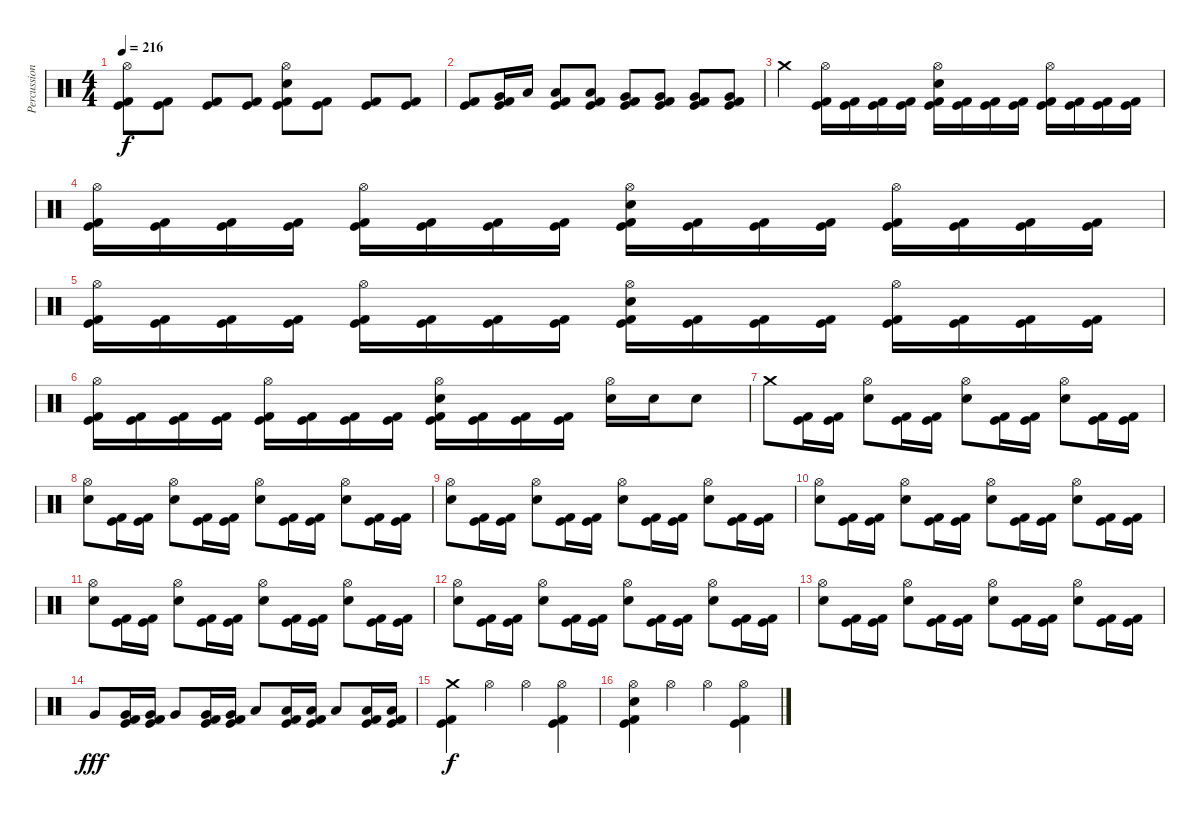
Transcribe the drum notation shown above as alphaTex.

\track ("Percussions" "Percussion") {instrument percussion}
\staff {score}
\articulation defaults
\ts (4 4)
\tempo 216
\clef neutral
\ks c
("Hi-Hat (open)" "Kick (hit)" "Kick (hit) 2").8{dy f} ("Kick (hit)" "Kick (hit) 2").8 ("Kick (hit)" "Kick (hit) 2").8 ("Kick (hit)" "Kick (hit) 2").8 ("Hi-Hat (open)" "Electric Snare (hit)" "Kick (hit)" "Kick (hit) 2").8 ("Kick (hit)" "Kick (hit) 2").8 ("Kick (hit)" "Kick (hit) 2").8 ("Kick (hit)" "Kick (hit) 2").8 |
("Kick (hit)" "Kick (hit) 2").8 ("Very Low Tom (hit)" "Kick (hit)" "Kick (hit) 2").16 "Low Tom (hit)".16 ("Low Tom (hit)" "Kick (hit)" "Kick (hit) 2").8 ("Low Tom (hit)" "Kick (hit)" "Kick (hit) 2").8 ("Very Low Tom (hit)" "Kick (hit)" "Kick (hit) 2").8 ("Very Low Tom (hit)" "Kick (hit)" "Kick (hit) 2").8 ("Very Low Tom (hit)" "Kick (hit)" "Kick (hit) 2").8 ("Very Low Tom (hit)" "Kick (hit)" "Kick (hit) 2").8 |
"Crash medium (hit)".4 ("Hi-Hat (open)" "Kick (hit)" "Kick (hit) 2").16 ("Kick (hit)" "Kick (hit) 2").16 ("Kick (hit)" "Kick (hit) 2").16 ("Kick (hit)" "Kick (hit) 2").16 ("Hi-Hat (open)" "Electric Snare (hit)" "Kick (hit)" "Kick (hit) 2").16 ("Kick (hit)" "Kick (hit) 2").16 ("Kick (hit)" "Kick (hit) 2").16 ("Kick (hit)" "Kick (hit) 2").16 ("Hi-Hat (open)" "Kick (hit)" "Kick (hit) 2").16 ("Kick (hit)" "Kick (hit) 2").16 ("Kick (hit)" "Kick (hit) 2").16 ("Kick (hit)" "Kick (hit) 2").16 |
("Hi-Hat (open)" "Kick (hit)" "Kick (hit) 2").16 ("Kick (hit)" "Kick (hit) 2").16 ("Kick (hit)" "Kick (hit) 2").16 ("Kick (hit)" "Kick (hit) 2").16 ("Hi-Hat (open)" "Kick (hit)" "Kick (hit) 2").16 ("Kick (hit)" "Kick (hit) 2").16 ("Kick (hit)" "Kick (hit) 2").16 ("Kick (hit)" "Kick (hit) 2").16 ("Hi-Hat (open)" "Electric Snare (hit)" "Kick (hit)" "Kick (hit) 2").16 ("Kick (hit)" "Kick (hit) 2").16 ("Kick (hit)" "Kick (hit) 2").16 ("Kick (hit)" "Kick (hit) 2").16 ("Hi-Hat (open)" "Kick (hit)" "Kick (hit) 2").16 ("Kick (hit)" "Kick (hit) 2").16 ("Kick (hit)" "Kick (hit) 2").16 ("Kick (hit)" "Kick (hit) 2").16 |
("Hi-Hat (open)" "Kick (hit)" "Kick (hit) 2").16 ("Kick (hit)" "Kick (hit) 2").16 ("Kick (hit)" "Kick (hit) 2").16 ("Kick (hit)" "Kick (hit) 2").16 ("Hi-Hat (open)" "Kick (hit)" "Kick (hit) 2").16 ("Kick (hit)" "Kick (hit) 2").16 ("Kick (hit)" "Kick (hit) 2").16 ("Kick (hit)" "Kick (hit) 2").16 ("Hi-Hat (open)" "Electric Snare (hit)" "Kick (hit)" "Kick (hit) 2").16 ("Kick (hit)" "Kick (hit) 2").16 ("Kick (hit)" "Kick (hit) 2").16 ("Kick (hit)" "Kick (hit) 2").16 ("Hi-Hat (open)" "Kick (hit)" "Kick (hit) 2").16 ("Kick (hit)" "Kick (hit) 2").16 ("Kick (hit)" "Kick (hit) 2").16 ("Kick (hit)" "Kick (hit) 2").16 |
("Hi-Hat (open)" "Kick (hit)" "Kick (hit) 2").16 ("Kick (hit)" "Kick (hit) 2").16 ("Kick (hit)" "Kick (hit) 2").16 ("Kick (hit)" "Kick (hit) 2").16 ("Hi-Hat (open)" "Kick (hit)" "Kick (hit) 2").16 ("Kick (hit)" "Kick (hit) 2").16 ("Kick (hit)" "Kick (hit) 2").16 ("Kick (hit)" "Kick (hit) 2").16 ("Hi-Hat (open)" "Electric Snare (hit)" "Kick (hit)" "Kick (hit) 2").16 ("Kick (hit)" "Kick (hit) 2").16 ("Kick (hit)" "Kick (hit) 2").16 ("Kick (hit)" "Kick (hit) 2").16 ("Hi-Hat (open)" "Electric Snare (hit)").16 "Electric Snare (hit)".16 "Electric Snare (hit)".8 |
"Crash medium (hit)".8 ("Kick (hit)" "Kick (hit) 2").16 ("Kick (hit)" "Kick (hit) 2").16 ("Hi-Hat (open)" "Electric Snare (hit)").8 ("Kick (hit)" "Kick (hit) 2").16 ("Kick (hit)" "Kick (hit) 2").16 ("Hi-Hat (open)" "Electric Snare (hit)").8 ("Kick (hit)" "Kick (hit) 2").16 ("Kick (hit)" "Kick (hit) 2").16 ("Hi-Hat (open)" "Electric Snare (hit)").8 ("Kick (hit)" "Kick (hit) 2").16 ("Kick (hit)" "Kick (hit) 2").16 |
("Hi-Hat (open)" "Electric Snare (hit)").8 ("Kick (hit)" "Kick (hit) 2").16 ("Kick (hit)" "Kick (hit) 2").16 ("Hi-Hat (open)" "Electric Snare (hit)").8 ("Kick (hit)" "Kick (hit) 2").16 ("Kick (hit)" "Kick (hit) 2").16 ("Hi-Hat (open)" "Electric Snare (hit)").8 ("Kick (hit)" "Kick (hit) 2").16 ("Kick (hit)" "Kick (hit) 2").16 ("Hi-Hat (open)" "Electric Snare (hit)").8 ("Kick (hit)" "Kick (hit) 2").16 ("Kick (hit)" "Kick (hit) 2").16 |
("Hi-Hat (open)" "Electric Snare (hit)").8 ("Kick (hit)" "Kick (hit) 2").16 ("Kick (hit)" "Kick (hit) 2").16 ("Hi-Hat (open)" "Electric Snare (hit)").8 ("Kick (hit)" "Kick (hit) 2").16 ("Kick (hit)" "Kick (hit) 2").16 ("Hi-Hat (open)" "Electric Snare (hit)").8 ("Kick (hit)" "Kick (hit) 2").16 ("Kick (hit)" "Kick (hit) 2").16 ("Hi-Hat (open)" "Electric Snare (hit)").8 ("Kick (hit)" "Kick (hit) 2").16 ("Kick (hit)" "Kick (hit) 2").16 |
("Hi-Hat (open)" "Electric Snare (hit)").8 ("Kick (hit)" "Kick (hit) 2").16 ("Kick (hit)" "Kick (hit) 2").16 ("Hi-Hat (open)" "Electric Snare (hit)").8 ("Kick (hit)" "Kick (hit) 2").16 ("Kick (hit)" "Kick (hit) 2").16 ("Hi-Hat (open)" "Electric Snare (hit)").8 ("Kick (hit)" "Kick (hit) 2").16 ("Kick (hit)" "Kick (hit) 2").16 ("Hi-Hat (open)" "Electric Snare (hit)").8 ("Kick (hit)" "Kick (hit) 2").16 ("Kick (hit)" "Kick (hit) 2").16 |
("Hi-Hat (open)" "Electric Snare (hit)").8 ("Kick (hit)" "Kick (hit) 2").16 ("Kick (hit)" "Kick (hit) 2").16 ("Hi-Hat (open)" "Electric Snare (hit)").8 ("Kick (hit)" "Kick (hit) 2").16 ("Kick (hit)" "Kick (hit) 2").16 ("Hi-Hat (open)" "Electric Snare (hit)").8 ("Kick (hit)" "Kick (hit) 2").16 ("Kick (hit)" "Kick (hit) 2").16 ("Hi-Hat (open)" "Electric Snare (hit)").8 ("Kick (hit)" "Kick (hit) 2").16 ("Kick (hit)" "Kick (hit) 2").16 |
("Hi-Hat (open)" "Electric Snare (hit)").8 ("Kick (hit)" "Kick (hit) 2").16 ("Kick (hit)" "Kick (hit) 2").16 ("Hi-Hat (open)" "Electric Snare (hit)").8 ("Kick (hit)" "Kick (hit) 2").16 ("Kick (hit)" "Kick (hit) 2").16 ("Hi-Hat (open)" "Electric Snare (hit)").8 ("Kick (hit)" "Kick (hit) 2").16 ("Kick (hit)" "Kick (hit) 2").16 ("Hi-Hat (open)" "Electric Snare (hit)").8 ("Kick (hit)" "Kick (hit) 2").16 ("Kick (hit)" "Kick (hit) 2").16 |
("Hi-Hat (open)" "Electric Snare (hit)").8 ("Kick (hit)" "Kick (hit) 2").16 ("Kick (hit)" "Kick (hit) 2").16 ("Hi-Hat (open)" "Electric Snare (hit)").8 ("Kick (hit)" "Kick (hit) 2").16 ("Kick (hit)" "Kick (hit) 2").16 ("Hi-Hat (open)" "Electric Snare (hit)").8 ("Kick (hit)" "Kick (hit) 2").16 ("Kick (hit)" "Kick (hit) 2").16 ("Hi-Hat (open)" "Electric Snare (hit)").8 ("Kick (hit)" "Kick (hit) 2").16 ("Kick (hit)" "Kick (hit) 2").16 |
"Very Low Tom (hit)".8{dy fff} ("Very Low Tom (hit)" "Kick (hit)" "Kick (hit) 2").16 ("Very Low Tom (hit)" "Kick (hit)" "Kick (hit) 2").16 "Very Low Tom (hit)".8 ("Very Low Tom (hit)" "Kick (hit)" "Kick (hit) 2").16 ("Very Low Tom (hit)" "Kick (hit)" "Kick (hit) 2").16 "Low Floor Tom (hit)".8 ("Low Floor Tom (hit)" "Kick (hit)" "Kick (hit) 2").16 ("Low Floor Tom (hit)" "Kick (hit)" "Kick (hit) 2").16 "Low Floor Tom (hit)".8 ("Low Floor Tom (hit)" "Kick (hit)" "Kick (hit) 2").16 ("Low Floor Tom (hit)" "Kick (hit)" "Kick (hit) 2").16 |
("Crash medium (hit)" "Kick (hit)" "Kick (hit) 2").4{dy f} "Hi-Hat (open)".4 "Hi-Hat (open)".4 ("Hi-Hat (open)" "Kick (hit)" "Kick (hit) 2").4 |
("Hi-Hat (open)" "Electric Snare (hit)" "Kick (hit)" "Kick (hit) 2").4 "Hi-Hat (open)".4 "Hi-Hat (open)".4 ("Hi-Hat (open)" "Kick (hit)" "Kick (hit) 2").4
